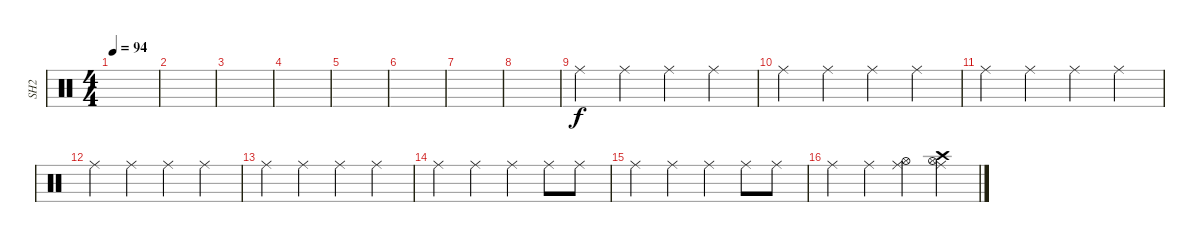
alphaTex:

\track ("SH2" "SH2") {instrument percussion}
\staff {score}
\articulation defaults
\ts (4 4)
\tempo 94
\clef neutral
\ks c
|
|
|
|
|
|
|
|
"Ride (middle)".4{volume 16} "Ride (middle)".4 "Ride (middle)".4 "Ride (middle)".4 |
"Ride (middle)".4{volume 14} "Ride (middle)".4 "Ride (middle)".4 "Ride (middle)".4 |
"Ride (middle)".4 "Ride (middle)".4 "Ride (middle)".4 "Ride (middle)".4 |
"Ride (middle)".4 "Ride (middle)".4 "Ride (middle)".4 "Ride (middle)".4 |
"Ride (middle)".4 "Ride (middle)".4 "Ride (middle)".4 "Ride (middle)".4 |
"Ride (middle)".4 "Ride (middle)".4 "Ride (middle)".4 "Ride (middle)".8 "Ride (middle)".8 |
"Ride (middle)".4 "Ride (middle)".4 "Ride (middle)".4 "Ride (middle)".8 "Ride (middle)".8 |
"Ride (middle)".4 "Ride (middle)".4 ("Ride (middle)" "Hi-Hat (open)").4 ("Ride (middle)" "Hi-Hat (open)" "Crash high (hit)").4
